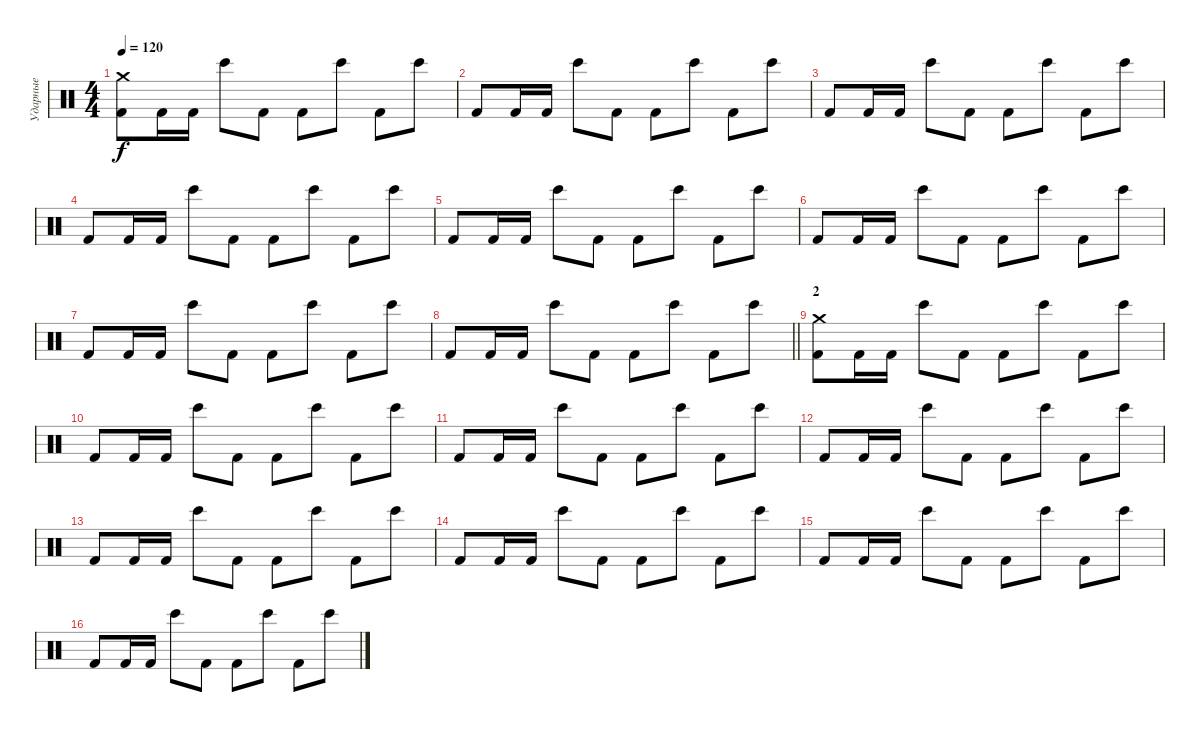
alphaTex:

\track ("Ударные" "Ударные") {instrument percussion}
\staff {score}
\articulation defaults
\ts (4 4)
\tempo 120
\clef neutral
\ks c
("Kick (hit) 2" "Crash medium (hit)").8{dy f} "Kick (hit) 2".16 "Kick (hit) 2".16 "Bongo High (hit)".8 "Kick (hit) 2".8 "Kick (hit) 2".8 "Bongo High (hit)".8 "Kick (hit) 2".8 "Bongo High (hit)".8 |
"Kick (hit) 2".8 "Kick (hit) 2".16 "Kick (hit) 2".16 "Bongo High (hit)".8 "Kick (hit) 2".8 "Kick (hit) 2".8 "Bongo High (hit)".8 "Kick (hit) 2".8 "Bongo High (hit)".8 |
"Kick (hit) 2".8 "Kick (hit) 2".16 "Kick (hit) 2".16 "Bongo High (hit)".8 "Kick (hit) 2".8 "Kick (hit) 2".8 "Bongo High (hit)".8 "Kick (hit) 2".8 "Bongo High (hit)".8 |
"Kick (hit) 2".8 "Kick (hit) 2".16 "Kick (hit) 2".16 "Bongo High (hit)".8 "Kick (hit) 2".8 "Kick (hit) 2".8 "Bongo High (hit)".8 "Kick (hit) 2".8 "Bongo High (hit)".8 |
"Kick (hit) 2".8 "Kick (hit) 2".16 "Kick (hit) 2".16 "Bongo High (hit)".8 "Kick (hit) 2".8 "Kick (hit) 2".8 "Bongo High (hit)".8 "Kick (hit) 2".8 "Bongo High (hit)".8 |
"Kick (hit) 2".8 "Kick (hit) 2".16 "Kick (hit) 2".16 "Bongo High (hit)".8 "Kick (hit) 2".8 "Kick (hit) 2".8 "Bongo High (hit)".8 "Kick (hit) 2".8 "Bongo High (hit)".8 |
"Kick (hit) 2".8 "Kick (hit) 2".16 "Kick (hit) 2".16 "Bongo High (hit)".8 "Kick (hit) 2".8 "Kick (hit) 2".8 "Bongo High (hit)".8 "Kick (hit) 2".8 "Bongo High (hit)".8 |
\barLineRight lightlight "Kick (hit) 2".8 "Kick (hit) 2".16 "Kick (hit) 2".16 "Bongo High (hit)".8 "Kick (hit) 2".8 "Kick (hit) 2".8 "Bongo High (hit)".8 "Kick (hit) 2".8 "Bongo High (hit)".8
|
\section ("" "2")
("Kick (hit) 2" "Crash medium (hit)").8 "Kick (hit) 2".16 "Kick (hit) 2".16 "Bongo High (hit)".8 "Kick (hit) 2".8 "Kick (hit) 2".8 "Bongo High (hit)".8 "Kick (hit) 2".8 "Bongo High (hit)".8 |
"Kick (hit) 2".8 "Kick (hit) 2".16 "Kick (hit) 2".16 "Bongo High (hit)".8 "Kick (hit) 2".8 "Kick (hit) 2".8 "Bongo High (hit)".8 "Kick (hit) 2".8 "Bongo High (hit)".8 |
"Kick (hit) 2".8 "Kick (hit) 2".16 "Kick (hit) 2".16 "Bongo High (hit)".8 "Kick (hit) 2".8 "Kick (hit) 2".8 "Bongo High (hit)".8 "Kick (hit) 2".8 "Bongo High (hit)".8 |
"Kick (hit) 2".8 "Kick (hit) 2".16 "Kick (hit) 2".16 "Bongo High (hit)".8 "Kick (hit) 2".8 "Kick (hit) 2".8 "Bongo High (hit)".8 "Kick (hit) 2".8 "Bongo High (hit)".8 |
"Kick (hit) 2".8 "Kick (hit) 2".16 "Kick (hit) 2".16 "Bongo High (hit)".8 "Kick (hit) 2".8 "Kick (hit) 2".8 "Bongo High (hit)".8 "Kick (hit) 2".8 "Bongo High (hit)".8 |
"Kick (hit) 2".8 "Kick (hit) 2".16 "Kick (hit) 2".16 "Bongo High (hit)".8 "Kick (hit) 2".8 "Kick (hit) 2".8 "Bongo High (hit)".8 "Kick (hit) 2".8 "Bongo High (hit)".8 |
"Kick (hit) 2".8 "Kick (hit) 2".16 "Kick (hit) 2".16 "Bongo High (hit)".8 "Kick (hit) 2".8 "Kick (hit) 2".8 "Bongo High (hit)".8 "Kick (hit) 2".8 "Bongo High (hit)".8 |
"Kick (hit) 2".8 "Kick (hit) 2".16 "Kick (hit) 2".16 "Bongo High (hit)".8 "Kick (hit) 2".8 "Kick (hit) 2".8 "Bongo High (hit)".8 "Kick (hit) 2".8 "Bongo High (hit)".8
